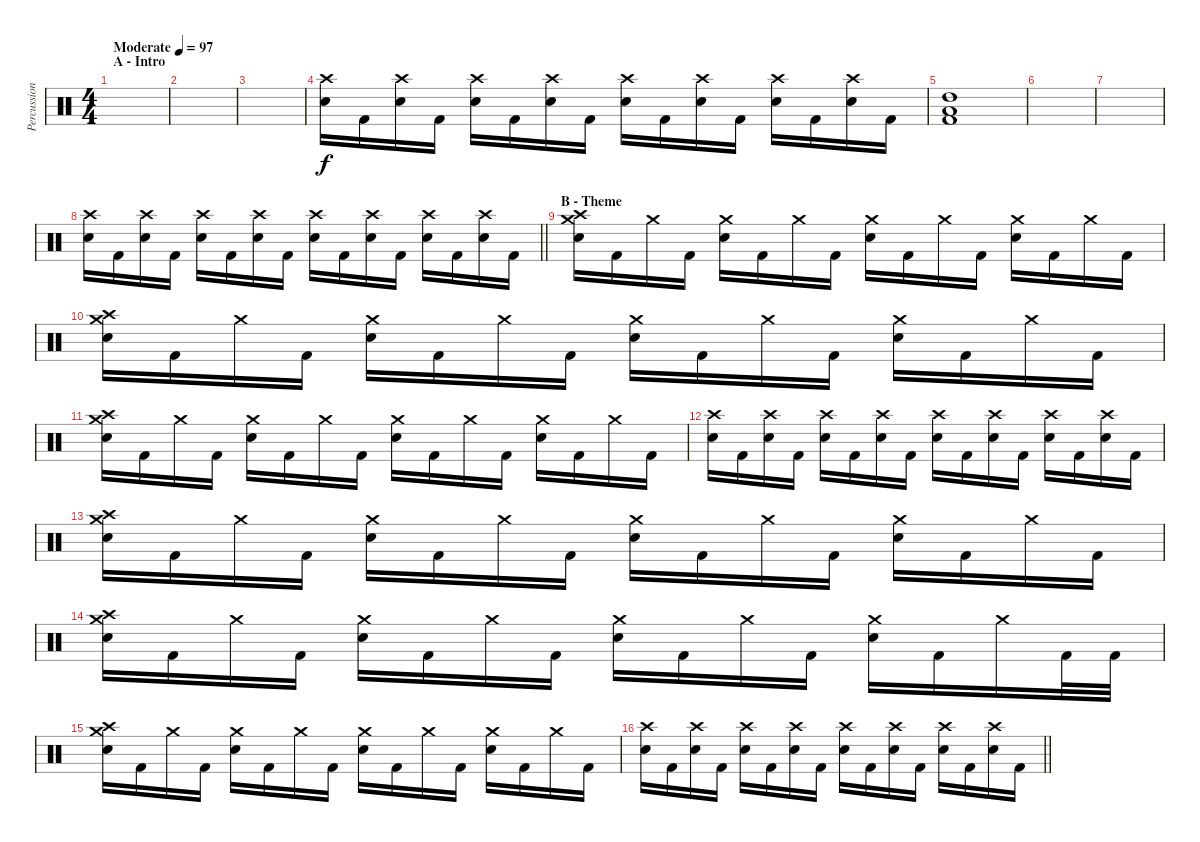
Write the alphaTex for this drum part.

\track ("Percussions" "Percussion") {instrument percussion}
\staff {score}
\articulation defaults
\ts (4 4)
\section ("" "A - Intro")
\tempo (97 "Moderate")
\clef neutral
\ks c
|
|
|
("Crash high (hit)" "Snare (hit) 2").16 "Kick (hit) 2".16 ("Crash high (hit)" "Snare (hit) 2").16 "Kick (hit) 2".16 ("Crash high (hit)" "Snare (hit) 2").16 "Kick (hit) 2".16 ("Crash high (hit)" "Snare (hit) 2").16 "Kick (hit) 2".16 ("Crash high (hit)" "Snare (hit) 2").16 "Kick (hit) 2".16 ("Crash high (hit)" "Snare (hit) 2").16 "Kick (hit) 2".16 ("Crash high (hit)" "Snare (hit) 2").16 "Kick (hit) 2".16 ("Crash high (hit)" "Snare (hit) 2").16 "Kick (hit) 2".16 |
("High Tom (hit)" "Low Tom (hit)" "Kick (hit) 2").1 |
|
|
\barLineRight lightlight
("Crash high (hit)" "Snare (hit) 2").16 "Kick (hit) 2".16 ("Crash high (hit)" "Snare (hit) 2").16 "Kick (hit) 2".16 ("Crash high (hit)" "Snare (hit) 2").16 "Kick (hit) 2".16 ("Crash high (hit)" "Snare (hit) 2").16 "Kick (hit) 2".16 ("Crash high (hit)" "Snare (hit) 2").16 "Kick (hit) 2".16 ("Crash high (hit)" "Snare (hit) 2").16 "Kick (hit) 2".16 ("Crash high (hit)" "Snare (hit) 2").16 "Kick (hit) 2".16 ("Crash high (hit)" "Snare (hit) 2").16 "Kick (hit) 2".16 |
\section ("" "B - Theme")
("Crash medium (hit)" "Crash high (hit)" "Snare (hit) 2").16 "Kick (hit) 2".16 "Crash medium (hit)".16 "Kick (hit) 2".16 ("Crash medium (hit)" "Snare (hit) 2").16 "Kick (hit) 2".16 "Crash medium (hit)".16 "Kick (hit) 2".16 ("Crash medium (hit)" "Snare (hit) 2").16 "Kick (hit) 2".16 "Crash medium (hit)".16 "Kick (hit) 2".16 ("Crash medium (hit)" "Snare (hit) 2").16 "Kick (hit) 2".16 "Crash medium (hit)".16 "Kick (hit) 2".16 |
("Crash medium (hit)" "Crash high (hit)" "Snare (hit) 2").16 "Kick (hit) 2".16 "Crash medium (hit)".16 "Kick (hit) 2".16 ("Crash medium (hit)" "Snare (hit) 2").16 "Kick (hit) 2".16 "Crash medium (hit)".16 "Kick (hit) 2".16 ("Crash medium (hit)" "Snare (hit) 2").16 "Kick (hit) 2".16 "Crash medium (hit)".16 "Kick (hit) 2".16 ("Crash medium (hit)" "Snare (hit) 2").16 "Kick (hit) 2".16 "Crash medium (hit)".16 "Kick (hit) 2".16 |
("Crash medium (hit)" "Crash high (hit)" "Snare (hit) 2").16 "Kick (hit) 2".16 "Crash medium (hit)".16 "Kick (hit) 2".16 ("Crash medium (hit)" "Snare (hit) 2").16 "Kick (hit) 2".16 "Crash medium (hit)".16 "Kick (hit) 2".16 ("Crash medium (hit)" "Snare (hit) 2").16 "Kick (hit) 2".16 "Crash medium (hit)".16 "Kick (hit) 2".16 ("Crash medium (hit)" "Snare (hit) 2").16 "Kick (hit) 2".16 "Crash medium (hit)".16 "Kick (hit) 2".16 |
("Crash high (hit)" "Snare (hit) 2").16 "Kick (hit) 2".16 ("Crash high (hit)" "Snare (hit) 2").16 "Kick (hit) 2".16 ("Crash high (hit)" "Snare (hit) 2").16 "Kick (hit) 2".16 ("Crash high (hit)" "Snare (hit) 2").16 "Kick (hit) 2".16 ("Crash high (hit)" "Snare (hit) 2").16 "Kick (hit) 2".16 ("Crash high (hit)" "Snare (hit) 2").16 "Kick (hit) 2".16 ("Crash high (hit)" "Snare (hit) 2").16 "Kick (hit) 2".16 ("Crash high (hit)" "Snare (hit) 2").16 "Kick (hit) 2".16 |
("Crash medium (hit)" "Crash high (hit)" "Snare (hit) 2").16 "Kick (hit) 2".16 "Crash medium (hit)".16 "Kick (hit) 2".16 ("Crash medium (hit)" "Snare (hit) 2").16 "Kick (hit) 2".16 "Crash medium (hit)".16 "Kick (hit) 2".16 ("Crash medium (hit)" "Snare (hit) 2").16 "Kick (hit) 2".16 "Crash medium (hit)".16 "Kick (hit) 2".16 ("Crash medium (hit)" "Snare (hit) 2").16 "Kick (hit) 2".16 "Crash medium (hit)".16 "Kick (hit) 2".16 |
("Crash medium (hit)" "Crash high (hit)" "Snare (hit) 2").16 "Kick (hit) 2".16 "Crash medium (hit)".16 "Kick (hit) 2".16 ("Crash medium (hit)" "Snare (hit) 2").16 "Kick (hit) 2".16 "Crash medium (hit)".16 "Kick (hit) 2".16 ("Crash medium (hit)" "Snare (hit) 2").16 "Kick (hit) 2".16 "Crash medium (hit)".16 "Kick (hit) 2".16 ("Crash medium (hit)" "Snare (hit) 2").16 "Kick (hit) 2".16 "Crash medium (hit)".16 "Kick (hit) 2".32 "Kick (hit) 2".32 |
("Crash medium (hit)" "Crash high (hit)" "Snare (hit) 2").16 "Kick (hit) 2".16 "Crash medium (hit)".16 "Kick (hit) 2".16 ("Crash medium (hit)" "Snare (hit) 2").16 "Kick (hit) 2".16 "Crash medium (hit)".16 "Kick (hit) 2".16 ("Crash medium (hit)" "Snare (hit) 2").16 "Kick (hit) 2".16 "Crash medium (hit)".16 "Kick (hit) 2".16 ("Crash medium (hit)" "Snare (hit) 2").16 "Kick (hit) 2".16 "Crash medium (hit)".16 "Kick (hit) 2".16 |
\barLineRight lightlight
("Crash high (hit)" "Snare (hit) 2").16 "Kick (hit) 2".16 ("Crash high (hit)" "Snare (hit) 2").16 "Kick (hit) 2".16 ("Crash high (hit)" "Snare (hit) 2").16 "Kick (hit) 2".16 ("Crash high (hit)" "Snare (hit) 2").16 "Kick (hit) 2".16 ("Crash high (hit)" "Snare (hit) 2").16 "Kick (hit) 2".16 ("Crash high (hit)" "Snare (hit) 2").16 "Kick (hit) 2".16 ("Crash high (hit)" "Snare (hit) 2").16 "Kick (hit) 2".16 ("Crash high (hit)" "Snare (hit) 2").16 "Kick (hit) 2".16
